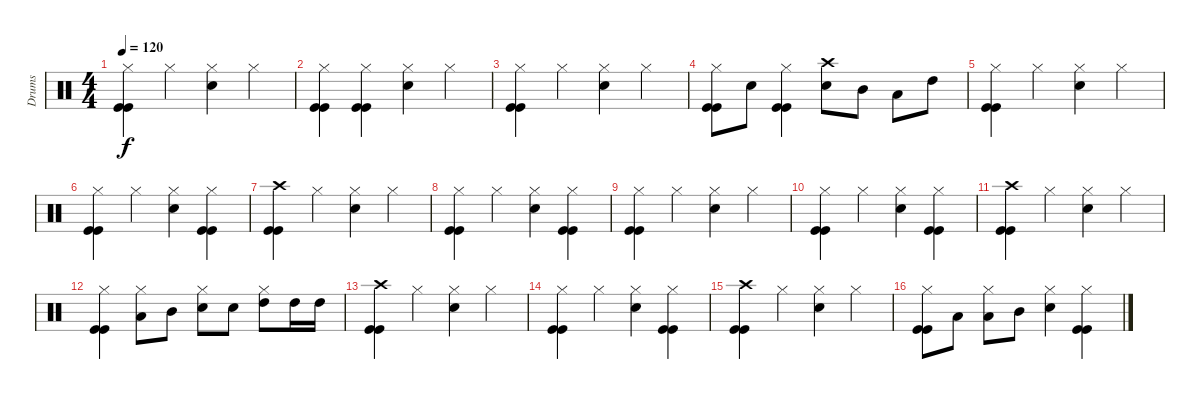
\track ("Drums" "Drums") {instrument percussion}
\staff {score}
\articulation defaults
\ts (4 4)
\tempo 120
\clef neutral
\ks c
("Hi-Hat (closed)" "Kick (hit)" "Kick (hit)").4{dy f} "Hi-Hat (closed)".4 ("Hi-Hat (closed)" "Snare (hit) 2").4 "Hi-Hat (closed)".4 |
("Hi-Hat (closed)" "Kick (hit)" "Kick (hit)").4 ("Hi-Hat (closed)" "Kick (hit)" "Kick (hit)").4 ("Hi-Hat (closed)" "Snare (hit) 2").4 "Hi-Hat (closed)".4 |
("Hi-Hat (closed)" "Kick (hit)" "Kick (hit)").4 "Hi-Hat (closed)".4 ("Hi-Hat (closed)" "Snare (hit) 2").4 "Hi-Hat (closed)".4 |
("Hi-Hat (closed)" "Kick (hit)" "Kick (hit)").8 "Snare (hit) 2".8 ("Hi-Hat (closed)" "Kick (hit)" "Kick (hit)").4 ("Crash high (hit)" "Snare (hit) 2").8 "Mid Tom (hit)".8 "Low Tom (hit)".8 "High Tom (hit)".8 |
("Hi-Hat (closed)" "Kick (hit)" "Kick (hit)").4 "Hi-Hat (closed)".4 ("Hi-Hat (closed)" "Snare (hit) 2").4 "Hi-Hat (closed)".4 |
("Hi-Hat (closed)" "Kick (hit)" "Kick (hit)").4 "Hi-Hat (closed)".4 ("Hi-Hat (closed)" "Snare (hit) 2").4 ("Hi-Hat (closed)" "Kick (hit)" "Kick (hit)").4 |
("Crash high (hit)" "Kick (hit)" "Kick (hit)").4 "Hi-Hat (closed)".4 ("Hi-Hat (closed)" "Snare (hit) 2").4 "Hi-Hat (closed)".4 |
("Hi-Hat (closed)" "Kick (hit)" "Kick (hit)").4 "Hi-Hat (closed)".4 ("Hi-Hat (closed)" "Snare (hit) 2").4 ("Hi-Hat (closed)" "Kick (hit)" "Kick (hit)").4 |
("Hi-Hat (closed)" "Kick (hit)" "Kick (hit)").4 "Hi-Hat (closed)".4 ("Hi-Hat (closed)" "Snare (hit) 2").4 "Hi-Hat (closed)".4 |
("Hi-Hat (closed)" "Kick (hit)" "Kick (hit)").4 "Hi-Hat (closed)".4 ("Hi-Hat (closed)" "Snare (hit) 2").4 ("Hi-Hat (closed)" "Kick (hit)" "Kick (hit)").4 |
("Crash high (hit)" "Kick (hit)" "Kick (hit)").4 "Hi-Hat (closed)".4 ("Hi-Hat (closed)" "Snare (hit) 2").4 "Hi-Hat (closed)".4 |
("Hi-Hat (closed)" "Kick (hit)" "Kick (hit)").4 ("Hi-Hat (closed)" "Low Tom (hit)").8 "Mid Tom (hit)".8 ("Hi-Hat (closed)" "Snare (hit) 2").8 "Snare (hit) 2".8 ("Hi-Hat (closed)" "High Tom (hit)").8 "High Tom (hit)".16 "High Tom (hit)".16 |
("Crash high (hit)" "Kick (hit)" "Kick (hit)").4 "Hi-Hat (closed)".4 ("Hi-Hat (closed)" "Snare (hit) 2").4 "Hi-Hat (closed)".4 |
("Hi-Hat (closed)" "Kick (hit)" "Kick (hit)").4 "Hi-Hat (closed)".4 ("Hi-Hat (closed)" "Snare (hit) 2").4 ("Hi-Hat (closed)" "Kick (hit)" "Kick (hit)").4 |
("Crash high (hit)" "Kick (hit)" "Kick (hit)").4 "Hi-Hat (closed)".4 ("Hi-Hat (closed)" "Snare (hit) 2").4 "Hi-Hat (closed)".4 |
("Hi-Hat (closed)" "Kick (hit)" "Kick (hit)").8 "Low Tom (hit)".8 ("Hi-Hat (closed)" "Low Tom (hit)").8 "Mid Tom (hit)".8 ("Hi-Hat (closed)" "Snare (hit) 2").4 ("Hi-Hat (closed)" "Kick (hit)" "Kick (hit)").4
